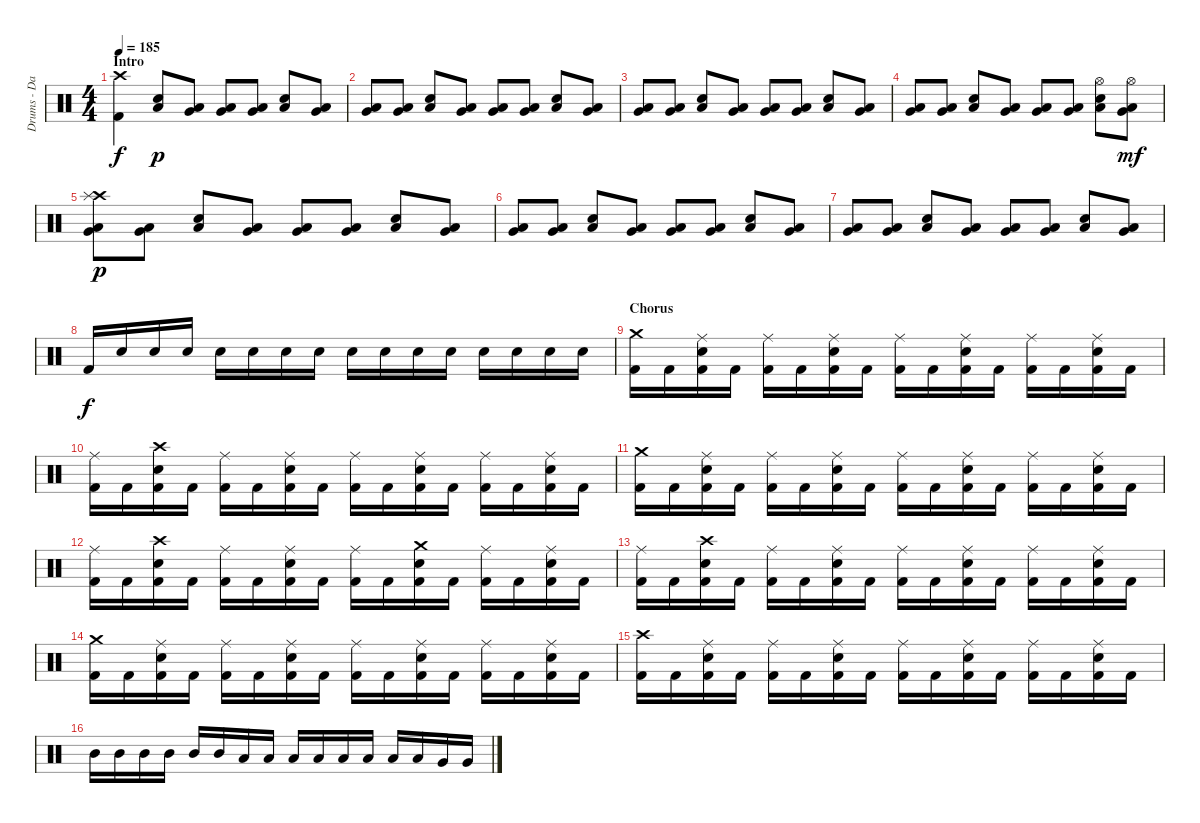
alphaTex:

\track ("Drums - Daniel Zimmermann" "Drums - Da") {instrument percussion}
\staff {score}
\articulation defaults
\ts (4 4)
\section ("" "Intro")
\tempo 185
\clef neutral
\ks c
("Kick (hit) 2" "Crash high (hit)").4{dy f} ("Electric Snare (hit)" "Low Floor Tom (hit)").8{dy p} ("Very Low Tom (hit)" "Low Floor Tom (hit)").8 ("Very Low Tom (hit)" "Low Floor Tom (hit)").8 ("Very Low Tom (hit)" "Low Floor Tom (hit)").8 ("Electric Snare (hit)" "Low Floor Tom (hit)").8 ("Very Low Tom (hit)" "Low Floor Tom (hit)").8 |
("Very Low Tom (hit)" "Low Floor Tom (hit)").8 ("Very Low Tom (hit)" "Low Floor Tom (hit)").8 ("Electric Snare (hit)" "Low Floor Tom (hit)").8 ("Very Low Tom (hit)" "Low Floor Tom (hit)").8 ("Very Low Tom (hit)" "Low Floor Tom (hit)").8 ("Very Low Tom (hit)" "Low Floor Tom (hit)").8 ("Electric Snare (hit)" "Low Floor Tom (hit)").8 ("Very Low Tom (hit)" "Low Floor Tom (hit)").8 |
("Very Low Tom (hit)" "Low Floor Tom (hit)").8 ("Very Low Tom (hit)" "Low Floor Tom (hit)").8 ("Electric Snare (hit)" "Low Floor Tom (hit)").8 ("Very Low Tom (hit)" "Low Floor Tom (hit)").8 ("Very Low Tom (hit)" "Low Floor Tom (hit)").8 ("Very Low Tom (hit)" "Low Floor Tom (hit)").8 ("Electric Snare (hit)" "Low Floor Tom (hit)").8 ("Very Low Tom (hit)" "Low Floor Tom (hit)").8 |
("Very Low Tom (hit)" "Low Floor Tom (hit)").8 ("Very Low Tom (hit)" "Low Floor Tom (hit)").8 ("Electric Snare (hit)" "Low Floor Tom (hit)").8 ("Very Low Tom (hit)" "Low Floor Tom (hit)").8 ("Very Low Tom (hit)" "Low Floor Tom (hit)").8 ("Very Low Tom (hit)" "Low Floor Tom (hit)").8 ("Electric Snare (hit)" "Low Floor Tom (hit)" "Hi-Hat (open)").8 ("Very Low Tom (hit)" "Low Floor Tom (hit)" "Hi-Hat (open)").8{dy mf} |
("Very Low Tom (hit)" "Low Floor Tom (hit)" "Crash high (hit)" "Splash (hit)").8{dy p} ("Very Low Tom (hit)" "Low Floor Tom (hit)").8 ("Electric Snare (hit)" "Low Floor Tom (hit)").8 ("Very Low Tom (hit)" "Low Floor Tom (hit)").8 ("Very Low Tom (hit)" "Low Floor Tom (hit)").8 ("Very Low Tom (hit)" "Low Floor Tom (hit)").8 ("Electric Snare (hit)" "Low Floor Tom (hit)").8 ("Very Low Tom (hit)" "Low Floor Tom (hit)").8 |
("Very Low Tom (hit)" "Low Floor Tom (hit)").8 ("Very Low Tom (hit)" "Low Floor Tom (hit)").8 ("Electric Snare (hit)" "Low Floor Tom (hit)").8 ("Very Low Tom (hit)" "Low Floor Tom (hit)").8 ("Very Low Tom (hit)" "Low Floor Tom (hit)").8 ("Very Low Tom (hit)" "Low Floor Tom (hit)").8 ("Electric Snare (hit)" "Low Floor Tom (hit)").8 ("Very Low Tom (hit)" "Low Floor Tom (hit)").8 |
("Very Low Tom (hit)" "Low Floor Tom (hit)").8 ("Very Low Tom (hit)" "Low Floor Tom (hit)").8 ("Electric Snare (hit)" "Low Floor Tom (hit)").8 ("Very Low Tom (hit)" "Low Floor Tom (hit)").8 ("Very Low Tom (hit)" "Low Floor Tom (hit)").8 ("Very Low Tom (hit)" "Low Floor Tom (hit)").8 ("Electric Snare (hit)" "Low Floor Tom (hit)").8 ("Very Low Tom (hit)" "Low Floor Tom (hit)").8 |
"Kick (hit) 2".16{dy f} "Electric Snare (hit)".16 "Electric Snare (hit)".16 "Electric Snare (hit)".16 "Electric Snare (hit)".16 "Electric Snare (hit)".16 "Electric Snare (hit)".16 "Electric Snare (hit)".16 "Electric Snare (hit)".16 "Electric Snare (hit)".16 "Electric Snare (hit)".16 "Electric Snare (hit)".16 "Electric Snare (hit)".16 "Electric Snare (hit)".16 "Electric Snare (hit)".16 "Electric Snare (hit)".16 |
\section ("" "Chorus")
("Kick (hit) 2" "Crash medium (hit)").16 "Kick (hit) 2".16 ("Kick (hit) 2" "Electric Snare (hit)" "Ride (middle)").16 "Kick (hit) 2".16 ("Kick (hit) 2" "Ride (middle)").16 "Kick (hit) 2".16 ("Kick (hit) 2" "Electric Snare (hit)" "Ride (middle)").16 "Kick (hit) 2".16 ("Kick (hit) 2" "Ride (middle)").16 "Kick (hit) 2".16 ("Kick (hit) 2" "Electric Snare (hit)" "Ride (middle)").16 "Kick (hit) 2".16 ("Kick (hit) 2" "Ride (middle)").16 "Kick (hit) 2".16 ("Kick (hit) 2" "Electric Snare (hit)" "Ride (middle)").16 "Kick (hit) 2".16 |
("Kick (hit) 2" "Ride (middle)").16 "Kick (hit) 2".16 ("Kick (hit) 2" "Electric Snare (hit)" "Crash high (hit)").16 "Kick (hit) 2".16 ("Kick (hit) 2" "Ride (middle)").16 "Kick (hit) 2".16 ("Kick (hit) 2" "Electric Snare (hit)" "Ride (middle)").16 "Kick (hit) 2".16 ("Kick (hit) 2" "Ride (middle)").16 "Kick (hit) 2".16 ("Kick (hit) 2" "Electric Snare (hit)" "Ride (middle)").16 "Kick (hit) 2".16 ("Kick (hit) 2" "Ride (middle)").16 "Kick (hit) 2".16 ("Kick (hit) 2" "Electric Snare (hit)" "Ride (middle)").16 "Kick (hit) 2".16 |
("Kick (hit) 2" "Crash medium (hit)").16 "Kick (hit) 2".16 ("Kick (hit) 2" "Electric Snare (hit)" "Ride (middle)").16 "Kick (hit) 2".16 ("Kick (hit) 2" "Ride (middle)").16 "Kick (hit) 2".16 ("Kick (hit) 2" "Electric Snare (hit)" "Ride (middle)").16 "Kick (hit) 2".16 ("Kick (hit) 2" "Ride (middle)").16 "Kick (hit) 2".16 ("Kick (hit) 2" "Electric Snare (hit)" "Ride (middle)").16 "Kick (hit) 2".16 ("Kick (hit) 2" "Ride (middle)").16 "Kick (hit) 2".16 ("Kick (hit) 2" "Electric Snare (hit)" "Ride (middle)").16 "Kick (hit) 2".16 |
("Kick (hit) 2" "Ride (middle)").16 "Kick (hit) 2".16 ("Kick (hit) 2" "Electric Snare (hit)" "Crash high (hit)").16 "Kick (hit) 2".16 ("Kick (hit) 2" "Ride (middle)").16 "Kick (hit) 2".16 ("Kick (hit) 2" "Electric Snare (hit)" "Ride (middle)").16 "Kick (hit) 2".16 ("Kick (hit) 2" "Ride (middle)").16 "Kick (hit) 2".16 ("Kick (hit) 2" "Electric Snare (hit)" "Crash medium (hit)").16 "Kick (hit) 2".16 ("Kick (hit) 2" "Ride (middle)").16 "Kick (hit) 2".16 ("Kick (hit) 2" "Electric Snare (hit)" "Ride (middle)").16 "Kick (hit) 2".16 |
("Kick (hit) 2" "Ride (middle)").16 "Kick (hit) 2".16 ("Kick (hit) 2" "Electric Snare (hit)" "Crash high (hit)").16 "Kick (hit) 2".16 ("Kick (hit) 2" "Ride (middle)").16 "Kick (hit) 2".16 ("Kick (hit) 2" "Electric Snare (hit)" "Ride (middle)").16 "Kick (hit) 2".16 ("Kick (hit) 2" "Ride (middle)").16 "Kick (hit) 2".16 ("Kick (hit) 2" "Electric Snare (hit)" "Ride (middle)").16 "Kick (hit) 2".16 ("Kick (hit) 2" "Ride (middle)").16 "Kick (hit) 2".16 ("Kick (hit) 2" "Electric Snare (hit)" "Ride (middle)").16 "Kick (hit) 2".16 |
("Kick (hit) 2" "Crash medium (hit)").16 "Kick (hit) 2".16 ("Kick (hit) 2" "Electric Snare (hit)" "Ride (middle)").16 "Kick (hit) 2".16 ("Kick (hit) 2" "Ride (middle)").16 "Kick (hit) 2".16 ("Kick (hit) 2" "Electric Snare (hit)" "Ride (middle)").16 "Kick (hit) 2".16 ("Kick (hit) 2" "Ride (middle)").16 "Kick (hit) 2".16 ("Kick (hit) 2" "Electric Snare (hit)" "Ride (middle)").16 "Kick (hit) 2".16 ("Kick (hit) 2" "Ride (middle)").16 "Kick (hit) 2".16 ("Kick (hit) 2" "Electric Snare (hit)" "Ride (middle)").16 "Kick (hit) 2".16 |
("Kick (hit) 2" "Crash high (hit)").16 "Kick (hit) 2".16 ("Kick (hit) 2" "Electric Snare (hit)" "Ride (middle)").16 "Kick (hit) 2".16 ("Kick (hit) 2" "Ride (middle)").16 "Kick (hit) 2".16 ("Kick (hit) 2" "Electric Snare (hit)" "Ride (middle)").16 "Kick (hit) 2".16 ("Kick (hit) 2" "Ride (middle)").16 "Kick (hit) 2".16 ("Kick (hit) 2" "Electric Snare (hit)" "Ride (middle)").16 "Kick (hit) 2".16 ("Kick (hit) 2" "Ride (middle)").16 "Kick (hit) 2".16 ("Kick (hit) 2" "Electric Snare (hit)" "Ride (middle)").16 "Kick (hit) 2".16 |
"Mid Tom (hit)".16 "Mid Tom (hit)".16 "Mid Tom (hit)".16 "Mid Tom (hit)".16 "Mid Tom (hit)".16 "Mid Tom (hit)".16 "Low Tom (hit)".16 "Low Tom (hit)".16 "Low Tom (hit)".16 "Low Tom (hit)".16 "Low Tom (hit)".16 "Low Tom (hit)".16 "Low Tom (hit)".16 "Low Tom (hit)".16 "Very Low Tom (hit)".16 "Very Low Tom (hit)".16
